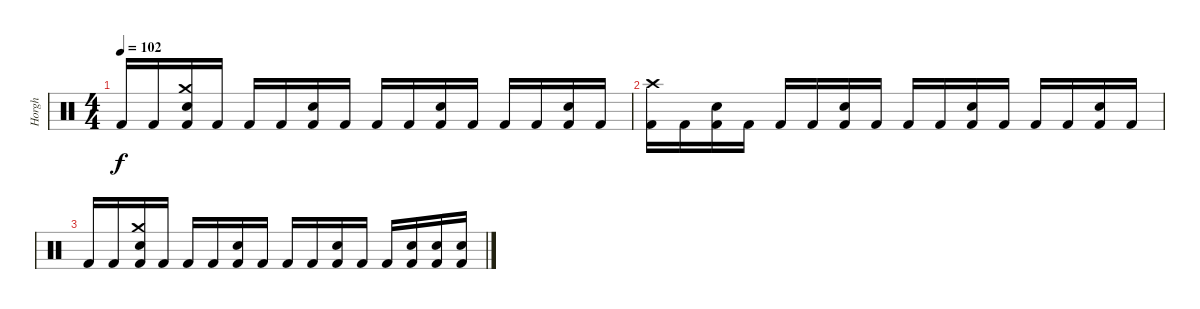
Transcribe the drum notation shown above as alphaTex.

\track ("Horgh" "Horgh") {instrument percussion}
\staff {score}
\articulation defaults
\ts (4 4)
\tempo 102
\clef neutral
\ks c "Kick (hit) 2".16{dy f} "Kick (hit) 2".16
("Crash medium (hit)" "Electric Snare (hit)" "Kick (hit) 2").16 "Kick (hit) 2".16 "Kick (hit) 2".16 "Kick (hit) 2".16 ("Electric Snare (hit)" "Kick (hit) 2").16 "Kick (hit) 2".16 "Kick (hit) 2".16 "Kick (hit) 2".16 ("Electric Snare (hit)" "Kick (hit) 2").16 "Kick (hit) 2".16 "Kick (hit) 2".16 "Kick (hit) 2".16 ("Electric Snare (hit)" "Kick (hit) 2").16 "Kick (hit) 2".16 |
("Crash high (hit)" "Kick (hit) 2").16 "Kick (hit) 2".16 ("Electric Snare (hit)" "Kick (hit) 2").16 "Kick (hit) 2".16 "Kick (hit) 2".16 "Kick (hit) 2".16 ("Electric Snare (hit)" "Kick (hit) 2").16 "Kick (hit) 2".16 "Kick (hit) 2".16 "Kick (hit) 2".16 ("Electric Snare (hit)" "Kick (hit) 2").16 "Kick (hit) 2".16 "Kick (hit) 2".16 "Kick (hit) 2".16 ("Electric Snare (hit)" "Kick (hit) 2").16 "Kick (hit) 2".16 |
"Kick (hit) 2".16 "Kick (hit) 2".16 ("Crash medium (hit)" "Electric Snare (hit)" "Kick (hit) 2").16 "Kick (hit) 2".16 "Kick (hit) 2".16 "Kick (hit) 2".16 ("Electric Snare (hit)" "Kick (hit) 2").16 "Kick (hit) 2".16 "Kick (hit) 2".16 "Kick (hit) 2".16 ("Electric Snare (hit)" "Kick (hit) 2").16 "Kick (hit) 2".16 "Kick (hit) 2".16 ("Electric Snare (hit)" "Kick (hit) 2").16 ("Electric Snare (hit)" "Kick (hit) 2").16 ("Electric Snare (hit)" "Kick (hit) 2").16
